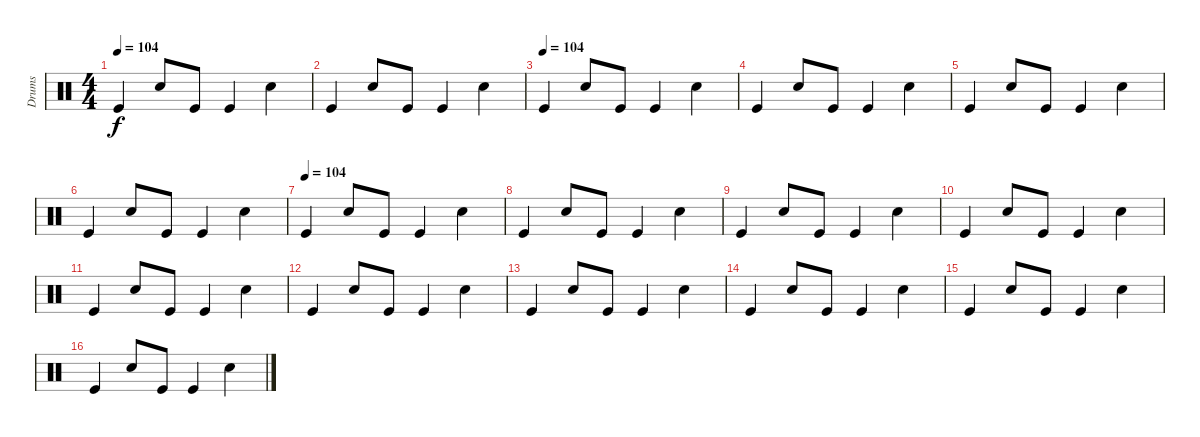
\track ("Drums" "Drums") {instrument percussion}
\staff {score}
\articulation defaults
\ts (4 4)
\tempo 104
\clef neutral
\ks c "Kick (hit)".4{dy f} "Snare (hit) 2".8 "Kick (hit)".8 "Kick (hit)".4 "Snare (hit) 2".4
|
"Kick (hit)".4 "Snare (hit) 2".8 "Kick (hit)".8 "Kick (hit)".4 "Snare (hit) 2".4 |
\tempo (104)
"Kick (hit)".4 "Snare (hit) 2".8 "Kick (hit)".8 "Kick (hit)".4 "Snare (hit) 2".4 |
"Kick (hit)".4 "Snare (hit) 2".8 "Kick (hit)".8 "Kick (hit)".4 "Snare (hit) 2".4 |
"Kick (hit)".4 "Snare (hit) 2".8 "Kick (hit)".8 "Kick (hit)".4 "Snare (hit) 2".4 |
"Kick (hit)".4 "Snare (hit) 2".8 "Kick (hit)".8 "Kick (hit)".4 "Snare (hit) 2".4 |
\tempo (104)
"Kick (hit)".4 "Snare (hit) 2".8 "Kick (hit)".8 "Kick (hit)".4 "Snare (hit) 2".4 |
"Kick (hit)".4 "Snare (hit) 2".8 "Kick (hit)".8 "Kick (hit)".4 "Snare (hit) 2".4 |
"Kick (hit)".4 "Snare (hit) 2".8 "Kick (hit)".8 "Kick (hit)".4 "Snare (hit) 2".4 |
"Kick (hit)".4 "Snare (hit) 2".8 "Kick (hit)".8 "Kick (hit)".4 "Snare (hit) 2".4 |
"Kick (hit)".4 "Snare (hit) 2".8 "Kick (hit)".8 "Kick (hit)".4 "Snare (hit) 2".4 |
"Kick (hit)".4 "Snare (hit) 2".8 "Kick (hit)".8 "Kick (hit)".4 "Snare (hit) 2".4 |
"Kick (hit)".4 "Snare (hit) 2".8 "Kick (hit)".8 "Kick (hit)".4 "Snare (hit) 2".4 |
"Kick (hit)".4 "Snare (hit) 2".8 "Kick (hit)".8 "Kick (hit)".4 "Snare (hit) 2".4 |
"Kick (hit)".4 "Snare (hit) 2".8 "Kick (hit)".8 "Kick (hit)".4 "Snare (hit) 2".4 |
"Kick (hit)".4 "Snare (hit) 2".8 "Kick (hit)".8 "Kick (hit)".4 "Snare (hit) 2".4
